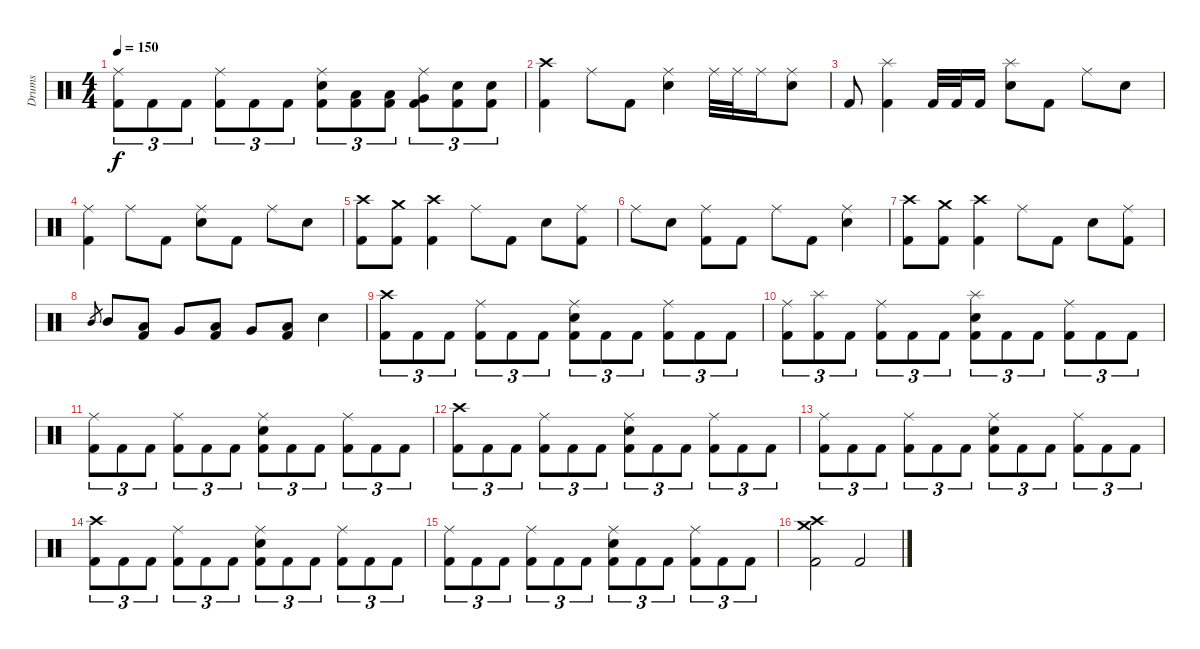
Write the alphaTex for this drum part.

\track ("Drums" "Drums") {instrument percussion}
\staff {score}
\articulation defaults
\ts (4 4)
\tempo 150
\clef neutral
\ks c
("Ride (middle)" "Kick (hit) 2").8{tu (3 2) dy f} "Kick (hit) 2".8{tu (3 2)} "Kick (hit) 2".8{tu (3 2)} ("Ride (middle)" "Kick (hit) 2").8{tu (3 2)} "Kick (hit) 2".8{tu (3 2)} "Kick (hit) 2".8{tu (3 2)} ("Ride (middle)" "Electric Snare (hit)" "Kick (hit) 2").8{tu (3 2)} ("Low Tom (hit)" "Kick (hit) 2").8{tu (3 2)} ("Low Tom (hit)" "Kick (hit) 2").8{tu (3 2)} ("Ride (middle)" "Very Low Tom (hit)" "Kick (hit) 2").8{tu (3 2)} ("Electric Snare (hit)" "Kick (hit) 2").8{tu (3 2)} ("Electric Snare (hit)" "Kick (hit) 2").8{tu (3 2)} |
("Crash high (hit)" "Kick (hit) 2").4 "Ride (middle)".8 "Kick (hit) 2".8 ("Ride (middle)" "Electric Snare (hit)").4 "Ride (middle)".32 "Ride (middle)".32 "Ride (middle)".16 ("Ride (middle)" "Electric Snare (hit)").8 |
"Kick (hit) 2".8 ("Splash (hit)" "Kick (hit) 2").4 "Kick (hit) 2".32 "Kick (hit) 2".32 "Kick (hit) 2".16 ("Splash (hit)" "Electric Snare (hit)").8 "Kick (hit) 2".8 "Ride (middle)".8 "Electric Snare (hit)".8 |
("Ride (middle)" "Kick (hit) 2").4 "Ride (middle)".8 "Kick (hit) 2".8 ("Ride (middle)" "Electric Snare (hit)").8 "Kick (hit) 2".8 "Ride (middle)".8 "Electric Snare (hit)".8 |
("Crash high (hit)" "Kick (hit) 2").8 ("Crash medium (hit)" "Kick (hit) 2").8 ("Crash high (hit)" "Kick (hit) 2").4 "Ride (middle)".8 "Kick (hit) 2".8 "Electric Snare (hit)".8 ("Ride (middle)" "Kick (hit) 2").8 |
"Ride (middle)".8 "Electric Snare (hit)".8 ("Ride (middle)" "Kick (hit) 2").8 "Kick (hit) 2".8 "Ride (middle)".8 "Kick (hit) 2".8 ("Ride (middle)" "Electric Snare (hit)").4 |
("Crash high (hit)" "Kick (hit) 2").8 ("Crash medium (hit)" "Kick (hit) 2").8 ("Crash high (hit)" "Kick (hit) 2").4 "Ride (middle)".8 "Kick (hit) 2".8 "Electric Snare (hit)".8 ("Ride (middle)" "Kick (hit) 2").8 |
"Mid Tom (hit)".8{gr} "Mid Tom (hit)".8 ("Low Tom (hit)" "Kick (hit) 2").8 "Very Low Tom (hit)".8 ("Low Tom (hit)" "Kick (hit) 2").8 "Very Low Tom (hit)".8 ("Low Floor Tom (hit)" "Kick (hit) 2").8 "Electric Snare (hit)".4 |
("Crash high (hit)" "Kick (hit) 2").8{tu (3 2)} "Kick (hit) 2".8{tu (3 2)} "Kick (hit) 2".8{tu (3 2)} ("Ride (middle)" "Kick (hit) 2").8{tu (3 2)} "Kick (hit) 2".8{tu (3 2)} "Kick (hit) 2".8{tu (3 2)} ("Ride (middle)" "Electric Snare (hit)" "Kick (hit) 2").8{tu (3 2)} "Kick (hit) 2".8{tu (3 2)} "Kick (hit) 2".8{tu (3 2)} ("Ride (middle)" "Kick (hit) 2").8{tu (3 2)} "Kick (hit) 2".8{tu (3 2)} "Kick (hit) 2".8{tu (3 2)} |
("Ride (middle)" "Kick (hit) 2").8{tu (3 2)} ("Splash (hit)" "Kick (hit) 2").8{tu (3 2)} "Kick (hit) 2".8{tu (3 2)} ("Ride (middle)" "Kick (hit) 2").8{tu (3 2)} "Kick (hit) 2".8{tu (3 2)} "Kick (hit) 2".8{tu (3 2)} ("Splash (hit)" "Electric Snare (hit)" "Kick (hit) 2").8{tu (3 2)} "Kick (hit) 2".8{tu (3 2)} "Kick (hit) 2".8{tu (3 2)} ("Ride (middle)" "Kick (hit) 2").8{tu (3 2)} "Kick (hit) 2".8{tu (3 2)} "Kick (hit) 2".8{tu (3 2)} |
("Ride (middle)" "Kick (hit) 2").8{tu (3 2)} "Kick (hit) 2".8{tu (3 2)} "Kick (hit) 2".8{tu (3 2)} ("Ride (middle)" "Kick (hit) 2").8{tu (3 2)} "Kick (hit) 2".8{tu (3 2)} "Kick (hit) 2".8{tu (3 2)} ("Ride (middle)" "Electric Snare (hit)" "Kick (hit) 2").8{tu (3 2)} "Kick (hit) 2".8{tu (3 2)} "Kick (hit) 2".8{tu (3 2)} ("Ride (middle)" "Kick (hit) 2").8{tu (3 2)} "Kick (hit) 2".8{tu (3 2)} "Kick (hit) 2".8{tu (3 2)} |
("Crash high (hit)" "Kick (hit) 2").8{tu (3 2)} "Kick (hit) 2".8{tu (3 2)} "Kick (hit) 2".8{tu (3 2)} ("Ride (middle)" "Kick (hit) 2").8{tu (3 2)} "Kick (hit) 2".8{tu (3 2)} "Kick (hit) 2".8{tu (3 2)} ("Ride (middle)" "Electric Snare (hit)" "Kick (hit) 2").8{tu (3 2)} "Kick (hit) 2".8{tu (3 2)} "Kick (hit) 2".8{tu (3 2)} ("Ride (middle)" "Kick (hit) 2").8{tu (3 2)} "Kick (hit) 2".8{tu (3 2)} "Kick (hit) 2".8{tu (3 2)} |
("Ride (middle)" "Kick (hit) 2").8{tu (3 2)} "Kick (hit) 2".8{tu (3 2)} "Kick (hit) 2".8{tu (3 2)} ("Ride (middle)" "Kick (hit) 2").8{tu (3 2)} "Kick (hit) 2".8{tu (3 2)} "Kick (hit) 2".8{tu (3 2)} ("Ride (middle)" "Electric Snare (hit)" "Kick (hit) 2").8{tu (3 2)} "Kick (hit) 2".8{tu (3 2)} "Kick (hit) 2".8{tu (3 2)} ("Ride (middle)" "Kick (hit) 2").8{tu (3 2)} "Kick (hit) 2".8{tu (3 2)} "Kick (hit) 2".8{tu (3 2)} |
("Crash high (hit)" "Kick (hit) 2").8{tu (3 2)} "Kick (hit) 2".8{tu (3 2)} "Kick (hit) 2".8{tu (3 2)} ("Ride (middle)" "Kick (hit) 2").8{tu (3 2)} "Kick (hit) 2".8{tu (3 2)} "Kick (hit) 2".8{tu (3 2)} ("Ride (middle)" "Electric Snare (hit)" "Kick (hit) 2").8{tu (3 2)} "Kick (hit) 2".8{tu (3 2)} "Kick (hit) 2".8{tu (3 2)} ("Ride (middle)" "Kick (hit) 2").8{tu (3 2)} "Kick (hit) 2".8{tu (3 2)} "Kick (hit) 2".8{tu (3 2)} |
("Ride (middle)" "Kick (hit) 2").8{tu (3 2)} "Kick (hit) 2".8{tu (3 2)} "Kick (hit) 2".8{tu (3 2)} ("Ride (middle)" "Kick (hit) 2").8{tu (3 2)} "Kick (hit) 2".8{tu (3 2)} "Kick (hit) 2".8{tu (3 2)} ("Ride (middle)" "Electric Snare (hit)" "Kick (hit) 2").8{tu (3 2)} "Kick (hit) 2".8{tu (3 2)} "Kick (hit) 2".8{tu (3 2)} ("Ride (middle)" "Kick (hit) 2").8{tu (3 2)} "Kick (hit) 2".8{tu (3 2)} "Kick (hit) 2".8{tu (3 2)} |
("Crash high (hit)" "Crash medium (hit)" "Kick (hit) 2").2 "Kick (hit) 2".2
